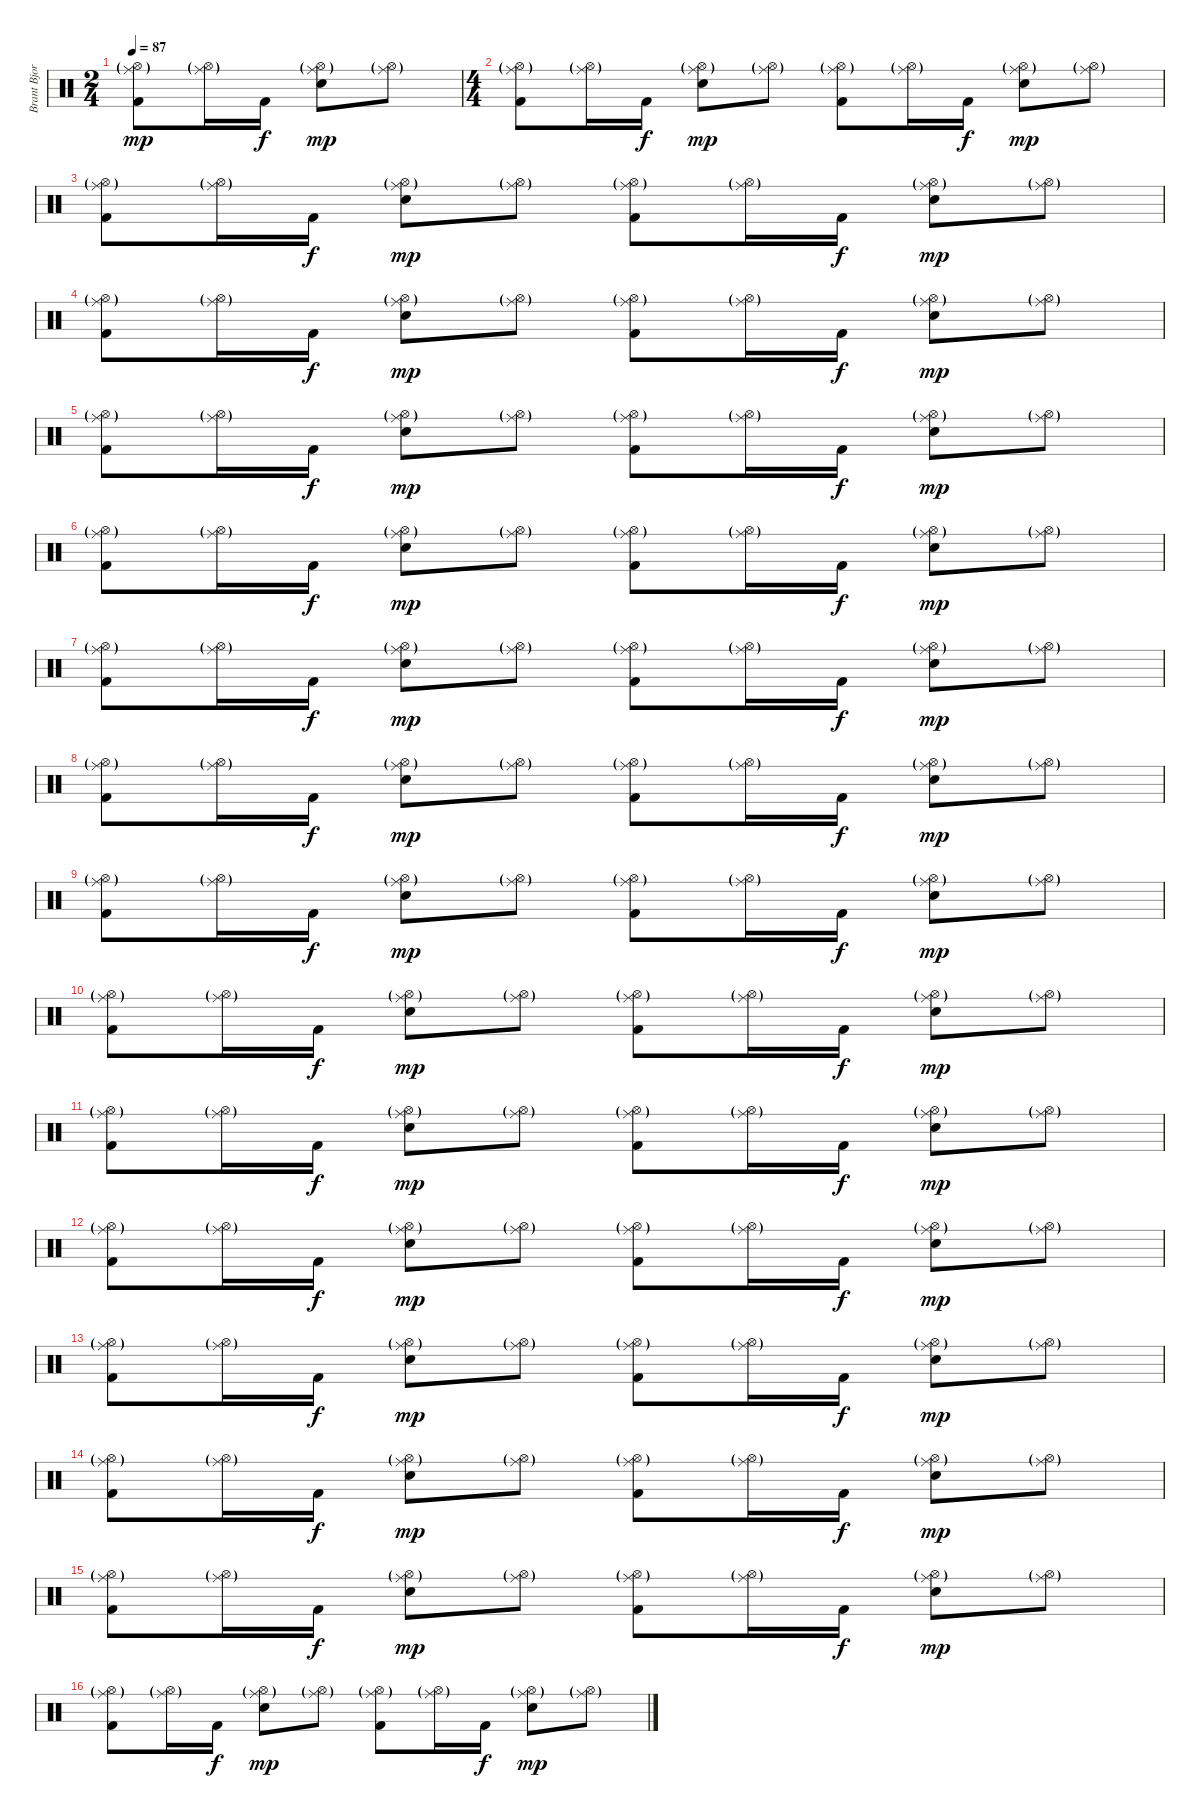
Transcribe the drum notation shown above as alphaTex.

\track ("Brant Bjork" "Brant Bjor") {instrument percussion}
\staff {score}
\articulation defaults
\ts (2 4)
\tempo 87
\clef neutral
\ks c
("Hi-Hat (open)"{g} "Ride (middle)"{g} "Kick (hit) 2").8{dy mp volume 0} ("Hi-Hat (open)"{g} "Ride (middle)"{g}).16{volume 11} "Kick (hit) 2".16{dy f} ("Hi-Hat (open)"{g} "Ride (middle)"{g} "Electric Snare (hit)").8{dy mp} ("Hi-Hat (open)"{g} "Ride (middle)"{g}).8 |
\ts (4 4)
("Hi-Hat (open)"{g} "Ride (middle)"{g} "Kick (hit) 2").8 ("Hi-Hat (open)"{g} "Ride (middle)"{g}).16 "Kick (hit) 2".16{dy f} ("Hi-Hat (open)"{g} "Ride (middle)"{g} "Electric Snare (hit)").8{dy mp} ("Hi-Hat (open)"{g} "Ride (middle)"{g}).8 ("Hi-Hat (open)"{g} "Ride (middle)"{g} "Kick (hit) 2").8 ("Hi-Hat (open)"{g} "Ride (middle)"{g}).16 "Kick (hit) 2".16{dy f} ("Hi-Hat (open)"{g} "Ride (middle)"{g} "Electric Snare (hit)").8{dy mp} ("Hi-Hat (open)"{g} "Ride (middle)"{g}).8 |
("Hi-Hat (open)"{g} "Ride (middle)"{g} "Kick (hit) 2").8 ("Hi-Hat (open)"{g} "Ride (middle)"{g}).16 "Kick (hit) 2".16{dy f} ("Hi-Hat (open)"{g} "Ride (middle)"{g} "Electric Snare (hit)").8{dy mp} ("Hi-Hat (open)"{g} "Ride (middle)"{g}).8 ("Hi-Hat (open)"{g} "Ride (middle)"{g} "Kick (hit) 2").8 ("Hi-Hat (open)"{g} "Ride (middle)"{g}).16 "Kick (hit) 2".16{dy f} ("Hi-Hat (open)"{g} "Ride (middle)"{g} "Electric Snare (hit)").8{dy mp} ("Hi-Hat (open)"{g} "Ride (middle)"{g}).8 |
("Hi-Hat (open)"{g} "Ride (middle)"{g} "Kick (hit) 2").8 ("Hi-Hat (open)"{g} "Ride (middle)"{g}).16 "Kick (hit) 2".16{dy f} ("Hi-Hat (open)"{g} "Ride (middle)"{g} "Electric Snare (hit)").8{dy mp} ("Hi-Hat (open)"{g} "Ride (middle)"{g}).8 ("Hi-Hat (open)"{g} "Ride (middle)"{g} "Kick (hit) 2").8 ("Hi-Hat (open)"{g} "Ride (middle)"{g}).16 "Kick (hit) 2".16{dy f} ("Hi-Hat (open)"{g} "Ride (middle)"{g} "Electric Snare (hit)").8{dy mp} ("Hi-Hat (open)"{g} "Ride (middle)"{g}).8 |
("Hi-Hat (open)"{g} "Ride (middle)"{g} "Kick (hit) 2").8 ("Hi-Hat (open)"{g} "Ride (middle)"{g}).16 "Kick (hit) 2".16{dy f} ("Hi-Hat (open)"{g} "Ride (middle)"{g} "Electric Snare (hit)").8{dy mp} ("Hi-Hat (open)"{g} "Ride (middle)"{g}).8 ("Hi-Hat (open)"{g} "Ride (middle)"{g} "Kick (hit) 2").8 ("Hi-Hat (open)"{g} "Ride (middle)"{g}).16 "Kick (hit) 2".16{dy f} ("Hi-Hat (open)"{g} "Ride (middle)"{g} "Electric Snare (hit)").8{dy mp} ("Hi-Hat (open)"{g} "Ride (middle)"{g}).8 |
("Hi-Hat (open)"{g} "Ride (middle)"{g} "Kick (hit) 2").8 ("Hi-Hat (open)"{g} "Ride (middle)"{g}).16 "Kick (hit) 2".16{dy f} ("Hi-Hat (open)"{g} "Ride (middle)"{g} "Electric Snare (hit)").8{dy mp} ("Hi-Hat (open)"{g} "Ride (middle)"{g}).8 ("Hi-Hat (open)"{g} "Ride (middle)"{g} "Kick (hit) 2").8 ("Hi-Hat (open)"{g} "Ride (middle)"{g}).16 "Kick (hit) 2".16{dy f} ("Hi-Hat (open)"{g} "Ride (middle)"{g} "Electric Snare (hit)").8{dy mp} ("Hi-Hat (open)"{g} "Ride (middle)"{g}).8 |
("Hi-Hat (open)"{g} "Ride (middle)"{g} "Kick (hit) 2").8 ("Hi-Hat (open)"{g} "Ride (middle)"{g}).16 "Kick (hit) 2".16{dy f} ("Hi-Hat (open)"{g} "Ride (middle)"{g} "Electric Snare (hit)").8{dy mp} ("Hi-Hat (open)"{g} "Ride (middle)"{g}).8 ("Hi-Hat (open)"{g} "Ride (middle)"{g} "Kick (hit) 2").8 ("Hi-Hat (open)"{g} "Ride (middle)"{g}).16 "Kick (hit) 2".16{dy f} ("Hi-Hat (open)"{g} "Ride (middle)"{g} "Electric Snare (hit)").8{dy mp} ("Hi-Hat (open)"{g} "Ride (middle)"{g}).8 |
("Hi-Hat (open)"{g} "Ride (middle)"{g} "Kick (hit) 2").8 ("Hi-Hat (open)"{g} "Ride (middle)"{g}).16 "Kick (hit) 2".16{dy f} ("Hi-Hat (open)"{g} "Ride (middle)"{g} "Electric Snare (hit)").8{dy mp} ("Hi-Hat (open)"{g} "Ride (middle)"{g}).8 ("Hi-Hat (open)"{g} "Ride (middle)"{g} "Kick (hit) 2").8 ("Hi-Hat (open)"{g} "Ride (middle)"{g}).16 "Kick (hit) 2".16{dy f} ("Hi-Hat (open)"{g} "Ride (middle)"{g} "Electric Snare (hit)").8{dy mp} ("Hi-Hat (open)"{g} "Ride (middle)"{g}).8 |
("Hi-Hat (open)"{g} "Ride (middle)"{g} "Kick (hit) 2").8 ("Hi-Hat (open)"{g} "Ride (middle)"{g}).16 "Kick (hit) 2".16{dy f} ("Hi-Hat (open)"{g} "Ride (middle)"{g} "Electric Snare (hit)").8{dy mp} ("Hi-Hat (open)"{g} "Ride (middle)"{g}).8 ("Hi-Hat (open)"{g} "Ride (middle)"{g} "Kick (hit) 2").8 ("Hi-Hat (open)"{g} "Ride (middle)"{g}).16 "Kick (hit) 2".16{dy f} ("Hi-Hat (open)"{g} "Ride (middle)"{g} "Electric Snare (hit)").8{dy mp} ("Hi-Hat (open)"{g} "Ride (middle)"{g}).8 |
("Hi-Hat (open)"{g} "Ride (middle)"{g} "Kick (hit) 2").8 ("Hi-Hat (open)"{g} "Ride (middle)"{g}).16 "Kick (hit) 2".16{dy f} ("Hi-Hat (open)"{g} "Ride (middle)"{g} "Electric Snare (hit)").8{dy mp} ("Hi-Hat (open)"{g} "Ride (middle)"{g}).8 ("Hi-Hat (open)"{g} "Ride (middle)"{g} "Kick (hit) 2").8 ("Hi-Hat (open)"{g} "Ride (middle)"{g}).16 "Kick (hit) 2".16{dy f} ("Hi-Hat (open)"{g} "Ride (middle)"{g} "Electric Snare (hit)").8{dy mp} ("Hi-Hat (open)"{g} "Ride (middle)"{g}).8 |
("Hi-Hat (open)"{g} "Ride (middle)"{g} "Kick (hit) 2").8 ("Hi-Hat (open)"{g} "Ride (middle)"{g}).16 "Kick (hit) 2".16{dy f} ("Hi-Hat (open)"{g} "Ride (middle)"{g} "Electric Snare (hit)").8{dy mp} ("Hi-Hat (open)"{g} "Ride (middle)"{g}).8 ("Hi-Hat (open)"{g} "Ride (middle)"{g} "Kick (hit) 2").8 ("Hi-Hat (open)"{g} "Ride (middle)"{g}).16 "Kick (hit) 2".16{dy f} ("Hi-Hat (open)"{g} "Ride (middle)"{g} "Electric Snare (hit)").8{dy mp} ("Hi-Hat (open)"{g} "Ride (middle)"{g}).8 |
("Hi-Hat (open)"{g} "Ride (middle)"{g} "Kick (hit) 2").8 ("Hi-Hat (open)"{g} "Ride (middle)"{g}).16 "Kick (hit) 2".16{dy f} ("Hi-Hat (open)"{g} "Ride (middle)"{g} "Electric Snare (hit)").8{dy mp} ("Hi-Hat (open)"{g} "Ride (middle)"{g}).8 ("Hi-Hat (open)"{g} "Ride (middle)"{g} "Kick (hit) 2").8 ("Hi-Hat (open)"{g} "Ride (middle)"{g}).16 "Kick (hit) 2".16{dy f} ("Hi-Hat (open)"{g} "Ride (middle)"{g} "Electric Snare (hit)").8{dy mp} ("Hi-Hat (open)"{g} "Ride (middle)"{g}).8 |
("Hi-Hat (open)"{g} "Ride (middle)"{g} "Kick (hit) 2").8 ("Hi-Hat (open)"{g} "Ride (middle)"{g}).16 "Kick (hit) 2".16{dy f} ("Hi-Hat (open)"{g} "Ride (middle)"{g} "Electric Snare (hit)").8{dy mp} ("Hi-Hat (open)"{g} "Ride (middle)"{g}).8 ("Hi-Hat (open)"{g} "Ride (middle)"{g} "Kick (hit) 2").8 ("Hi-Hat (open)"{g} "Ride (middle)"{g}).16 "Kick (hit) 2".16{dy f} ("Hi-Hat (open)"{g} "Ride (middle)"{g} "Electric Snare (hit)").8{dy mp} ("Hi-Hat (open)"{g} "Ride (middle)"{g}).8 |
("Hi-Hat (open)"{g} "Ride (middle)"{g} "Kick (hit) 2").8 ("Hi-Hat (open)"{g} "Ride (middle)"{g}).16 "Kick (hit) 2".16{dy f} ("Hi-Hat (open)"{g} "Ride (middle)"{g} "Electric Snare (hit)").8{dy mp} ("Hi-Hat (open)"{g} "Ride (middle)"{g}).8 ("Hi-Hat (open)"{g} "Ride (middle)"{g} "Kick (hit) 2").8 ("Hi-Hat (open)"{g} "Ride (middle)"{g}).16 "Kick (hit) 2".16{dy f} ("Hi-Hat (open)"{g} "Ride (middle)"{g} "Electric Snare (hit)").8{dy mp} ("Hi-Hat (open)"{g} "Ride (middle)"{g}).8 |
("Hi-Hat (open)"{g} "Ride (middle)"{g} "Kick (hit) 2").8 ("Hi-Hat (open)"{g} "Ride (middle)"{g}).16 "Kick (hit) 2".16{dy f} ("Hi-Hat (open)"{g} "Ride (middle)"{g} "Electric Snare (hit)").8{dy mp} ("Hi-Hat (open)"{g} "Ride (middle)"{g}).8 ("Hi-Hat (open)"{g} "Ride (middle)"{g} "Kick (hit) 2").8 ("Hi-Hat (open)"{g} "Ride (middle)"{g}).16 "Kick (hit) 2".16{dy f} ("Hi-Hat (open)"{g} "Ride (middle)"{g} "Electric Snare (hit)").8{dy mp} ("Hi-Hat (open)"{g} "Ride (middle)"{g}).8 |
("Hi-Hat (open)"{g} "Ride (middle)"{g} "Kick (hit) 2").8 ("Hi-Hat (open)"{g} "Ride (middle)"{g}).16 "Kick (hit) 2".16{dy f} ("Hi-Hat (open)"{g} "Ride (middle)"{g} "Electric Snare (hit)").8{dy mp} ("Hi-Hat (open)"{g} "Ride (middle)"{g}).8 ("Hi-Hat (open)"{g} "Ride (middle)"{g} "Kick (hit) 2").8 ("Hi-Hat (open)"{g} "Ride (middle)"{g}).16 "Kick (hit) 2".16{dy f} ("Hi-Hat (open)"{g} "Ride (middle)"{g} "Electric Snare (hit)").8{dy mp} ("Hi-Hat (open)"{g} "Ride (middle)"{g}).8
